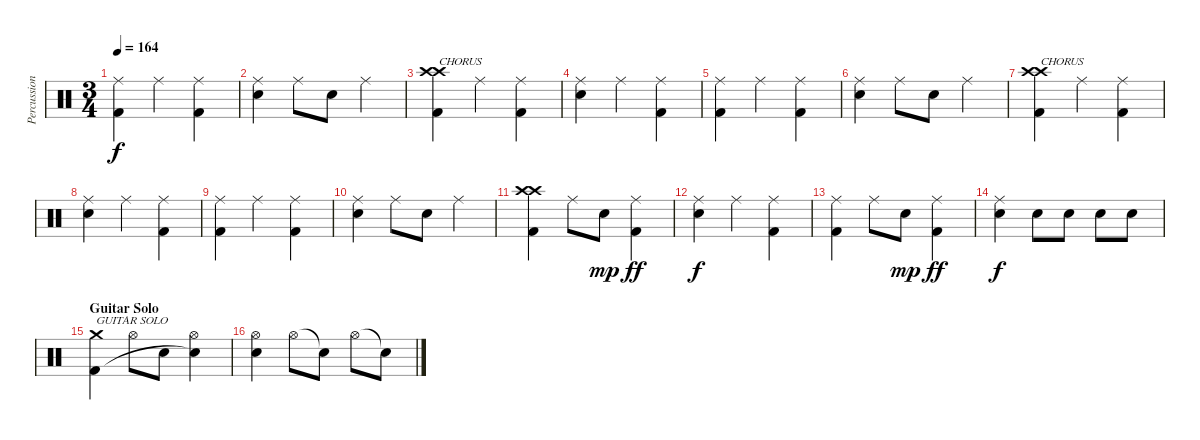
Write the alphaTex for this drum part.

\track ("Percussion" "Percussion") {instrument percussion}
\staff {score}
\articulation defaults
\ts (3 4)
\tempo 164
\clef neutral
\ks c
("Ride (middle)" "Kick (hit) 2").4{dy f} "Ride (middle)".4 ("Ride (middle)" "Kick (hit) 2").4 |
("Ride (middle)" "Snare (hit) 2").4 "Ride (middle)".8 "Snare (hit) 2".8 "Ride (middle)".4 |
("Crash high (hit)" "Crash high (hit)" "Kick (hit) 2").4{txt "CHORUS"} "Ride (middle)".4 ("Ride (middle)" "Kick (hit) 2").4 |
("Ride (middle)" "Snare (hit) 2").4 "Ride (middle)".4 ("Ride (middle)" "Kick (hit) 2").4 |
("Ride (middle)" "Kick (hit) 2").4 "Ride (middle)".4 ("Ride (middle)" "Kick (hit) 2").4 |
("Ride (middle)" "Snare (hit) 2").4 "Ride (middle)".8 "Snare (hit) 2".8 "Ride (middle)".4 |
("Crash high (hit)" "Crash high (hit)" "Kick (hit) 2").4{txt "CHORUS"} "Ride (middle)".4 ("Ride (middle)" "Kick (hit) 2").4 |
("Ride (middle)" "Snare (hit) 2").4 "Ride (middle)".4 ("Ride (middle)" "Kick (hit) 2").4 |
("Ride (middle)" "Kick (hit) 2").4 "Ride (middle)".4 ("Ride (middle)" "Kick (hit) 2").4 |
("Ride (middle)" "Snare (hit) 2").4 "Ride (middle)".8 "Snare (hit) 2".8 "Ride (middle)".4 |
("Crash high (hit)" "Crash high (hit)" "Kick (hit) 2").4 "Ride (middle)".8 "Snare (hit) 2".8{dy mp} ("Ride (middle)" "Kick (hit) 2").4{dy ff} |
("Ride (middle)" "Snare (hit) 2").4{dy f} "Ride (middle)".4 ("Ride (middle)" "Kick (hit) 2").4 |
("Ride (middle)" "Kick (hit) 2").4 "Ride (middle)".8 "Snare (hit) 2".8{dy mp} ("Ride (middle)" "Kick (hit) 2").4{dy ff} |
("Ride (middle)" "Snare (hit) 2").4{dy f} "Snare (hit) 2".8 "Snare (hit) 2".8 "Snare (hit) 2".8 "Snare (hit) 2".8 |
\section ("" "Guitar Solo")
("Crash medium (hit)" "Kick (hit) 2").4{txt "GUITAR SOLO"} "Hi-Hat (open)".8 "Snare (hit) 2".8 ("Hi-Hat (open)" "Snare (hit) 2"{t}).4 |
("Hi-Hat (open)" "Snare (hit) 2").4 "Hi-Hat (open)".8 "Snare (hit)"{t}.8 "Hi-Hat (open)".8 "Snare (hit)"{t}.8
